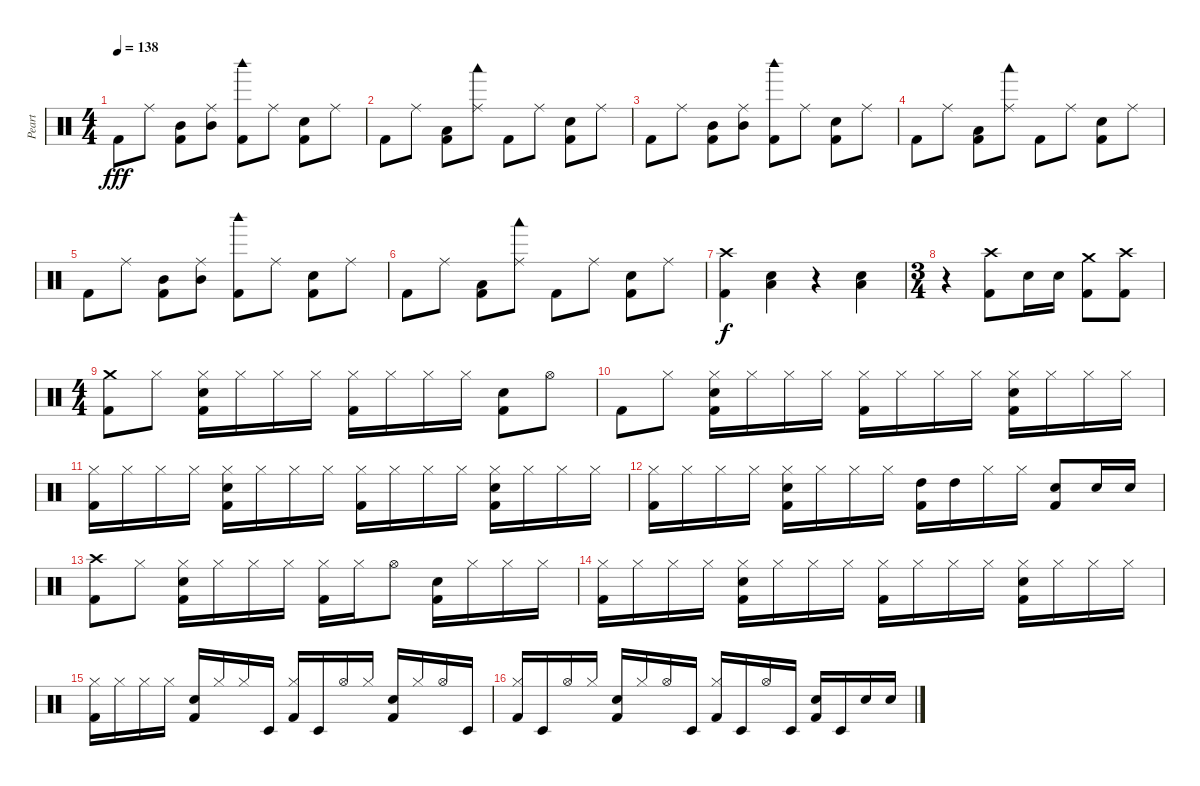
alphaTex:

\track ("Peart" "Peart") {instrument percussion}
\staff {score}
\articulation defaults
\ts (4 4)
\tempo 138
\clef neutral
\ks c "Kick (hit) 2".8{dy fff} "Ride (middle)".8
("Mid Tom (hit)" "Kick (hit) 2").8 ("Ride (middle)" "Mid Tom (hit)").8 ("Woodblock high (hit)" "Kick (hit) 2").8 "Ride (middle)".8 ("Electric Snare (hit)" "Kick (hit) 2").8 "Ride (middle)".8 |
"Kick (hit) 2".8 "Ride (middle)".8 ("Low Tom (hit)" "Kick (hit) 2").8 ("Ride (middle)" "Woodblock low (hit)").8 "Kick (hit) 2".8 "Ride (middle)".8 ("Electric Snare (hit)" "Kick (hit) 2").8 "Ride (middle)".8 |
"Kick (hit) 2".8 "Ride (middle)".8 ("Mid Tom (hit)" "Kick (hit) 2").8 ("Ride (middle)" "Mid Tom (hit)").8 ("Woodblock high (hit)" "Kick (hit) 2").8 "Ride (middle)".8 ("Electric Snare (hit)" "Kick (hit) 2").8 "Ride (middle)".8 |
"Kick (hit) 2".8 "Ride (middle)".8 ("Low Tom (hit)" "Kick (hit) 2").8 ("Ride (middle)" "Woodblock low (hit)").8 "Kick (hit) 2".8 "Ride (middle)".8 ("Electric Snare (hit)" "Kick (hit) 2").8 "Ride (middle)".8 |
"Kick (hit) 2".8 "Ride (middle)".8 ("Mid Tom (hit)" "Kick (hit) 2").8 ("Ride (middle)" "Mid Tom (hit)").8 ("Woodblock high (hit)" "Kick (hit) 2").8 "Ride (middle)".8 ("Electric Snare (hit)" "Kick (hit) 2").8 "Ride (middle)".8 |
"Kick (hit) 2".8 "Ride (middle)".8 ("Low Tom (hit)" "Kick (hit) 2").8 ("Ride (middle)" "Woodblock low (hit)").8 "Kick (hit) 2".8 "Ride (middle)".8 ("Electric Snare (hit)" "Kick (hit) 2").8 "Ride (middle)".8 |
("Crash high (hit)" "Kick (hit) 2").4{dy f} ("Electric Snare (hit)" "Low Floor Tom (hit)").4 r.4 ("Low Floor Tom (hit)" "Electric Snare (hit)").4 |
\ts (3 4)
r.4 ("Crash high (hit)" "Kick (hit) 2").8 "Electric Snare (hit)".16 "Electric Snare (hit)".16 ("Kick (hit) 2" "Crash medium (hit)").8 ("Kick (hit) 2" "Crash high (hit)").8 |
\ts (4 4)
("Crash medium (hit)" "Kick (hit) 2").8 "Hi-Hat (closed)".8 ("Hi-Hat (closed)" "Electric Snare (hit)" "Kick (hit) 2").16 "Hi-Hat (closed)".16 "Hi-Hat (closed)".16 "Hi-Hat (closed)".16 ("Hi-Hat (closed)" "Kick (hit) 2").16 "Hi-Hat (closed)".16 "Hi-Hat (closed)".16 "Hi-Hat (closed)".16 ("Electric Snare (hit)" "Kick (hit) 2").8 "Hi-Hat (open)".8 |
"Kick (hit) 2".8 "Hi-Hat (closed)".8 ("Hi-Hat (closed)" "Kick (hit) 2" "Electric Snare (hit)").16 "Hi-Hat (closed)".16 "Hi-Hat (closed)".16 "Hi-Hat (closed)".16 ("Hi-Hat (closed)" "Kick (hit) 2").16 "Hi-Hat (closed)".16 "Hi-Hat (closed)".16 "Hi-Hat (closed)".16 ("Hi-Hat (closed)" "Electric Snare (hit)" "Kick (hit) 2").16 "Hi-Hat (closed)".16 "Hi-Hat (closed)".16 "Hi-Hat (closed)".16 |
("Hi-Hat (closed)" "Kick (hit) 2").16 "Hi-Hat (closed)".16 "Hi-Hat (closed)".16 "Hi-Hat (closed)".16 ("Hi-Hat (closed)" "Electric Snare (hit)" "Kick (hit) 2").16 "Hi-Hat (closed)".16 "Hi-Hat (closed)".16 "Hi-Hat (closed)".16 ("Hi-Hat (closed)" "Kick (hit) 2").16 "Hi-Hat (closed)".16 "Hi-Hat (closed)".16 "Hi-Hat (closed)".16 ("Hi-Hat (closed)" "Electric Snare (hit)" "Kick (hit) 2").16 "Hi-Hat (closed)".16 "Hi-Hat (closed)".16 "Hi-Hat (closed)".16 |
("Hi-Hat (closed)" "Kick (hit) 2").16 "Hi-Hat (closed)".16 "Hi-Hat (closed)".16 "Hi-Hat (closed)".16 ("Hi-Hat (closed)" "Kick (hit) 2" "Electric Snare (hit)").16 "Hi-Hat (closed)".16 "Hi-Hat (closed)".16 "Hi-Hat (closed)".16 ("High Tom (hit)" "Kick (hit) 2").16 "High Tom (hit)".16 "Hi-Hat (closed)".16 "Hi-Hat (closed)".16 ("Electric Snare (hit)" "Kick (hit) 2").8 "Electric Snare (hit)".16 "Electric Snare (hit)".16 |
("Crash high (hit)" "Kick (hit) 2").8 "Hi-Hat (closed)".8 ("Hi-Hat (closed)" "Kick (hit) 2" "Electric Snare (hit)").16 "Hi-Hat (closed)".16 "Hi-Hat (closed)".16 "Hi-Hat (closed)".16 ("Hi-Hat (closed)" "Kick (hit) 2").16 "Hi-Hat (closed)".16 "Hi-Hat (open)".8 ("Electric Snare (hit)" "Kick (hit) 2").16 "Hi-Hat (closed)".16 "Hi-Hat (closed)".16 "Hi-Hat (closed)".16 |
("Hi-Hat (closed)" "Kick (hit) 2").16 "Hi-Hat (closed)".16 "Hi-Hat (closed)".16 "Hi-Hat (closed)".16 ("Hi-Hat (closed)" "Electric Snare (hit)" "Kick (hit) 2").16 "Hi-Hat (closed)".16 "Hi-Hat (closed)".16 "Hi-Hat (closed)".16 ("Hi-Hat (closed)" "Kick (hit) 2").16 "Hi-Hat (closed)".16 "Hi-Hat (closed)".16 "Hi-Hat (closed)".16 ("Hi-Hat (closed)" "Electric Snare (hit)" "Kick (hit) 2").16 "Hi-Hat (closed)".16 "Hi-Hat (closed)".16 "Hi-Hat (closed)".16 |
("Hi-Hat (closed)" "Kick (hit) 2").16 "Hi-Hat (closed)".16 "Hi-Hat (closed)".16 "Hi-Hat (closed)".16 ("Electric Snare (hit)" "Kick (hit) 2").16 "Hi-Hat (closed)".16 "Hi-Hat (closed)".16 "Timbale low (hit)".16 ("Hi-Hat (closed)" "Kick (hit) 2").16 "Timbale low (hit)".16 "Hi-Hat (open)".16 "Hi-Hat (closed)".16 ("Electric Snare (hit)" "Kick (hit) 2").16 "Hi-Hat (closed)".16 "Hi-Hat (open)".16 "Timbale low (hit)".16 |
("Hi-Hat (closed)" "Kick (hit) 2").16 "Timbale low (hit)".16 "Hi-Hat (open)".16 "Hi-Hat (closed)".16 ("Electric Snare (hit)" "Kick (hit) 2").16 "Hi-Hat (closed)".16 "Hi-Hat (open)".16 "Timbale low (hit)".16 ("Hi-Hat (closed)" "Kick (hit) 2").16 "Timbale low (hit)".16 "Hi-Hat (open)".16 "Timbale low (hit)".16 ("Electric Snare (hit)" "Kick (hit) 2").16 "Timbale low (hit)".16 "Electric Snare (hit)".16 "Electric Snare (hit)".16
